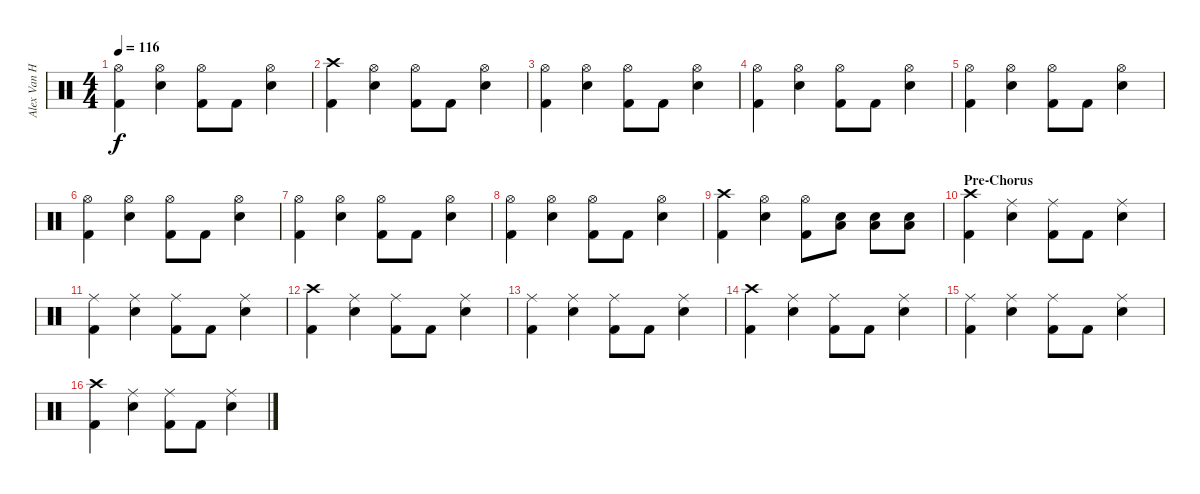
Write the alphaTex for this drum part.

\track ("Alex Van Halen" "Alex Van H") {instrument percussion}
\staff {score}
\articulation defaults
\ts (4 4)
\tempo 116
\clef neutral
\ks c
("Hi-Hat (open)" "Kick (hit) 2").4{dy f} ("Hi-Hat (open)" "Electric Snare (hit)").4 ("Hi-Hat (open)" "Kick (hit) 2").8 "Kick (hit) 2".8 ("Hi-Hat (open)" "Electric Snare (hit)").4 |
("Crash high (hit)" "Kick (hit) 2").4 ("Hi-Hat (open)" "Electric Snare (hit)").4 ("Hi-Hat (open)" "Kick (hit) 2").8 "Kick (hit) 2".8 ("Hi-Hat (open)" "Electric Snare (hit)").4 |
("Hi-Hat (open)" "Kick (hit) 2").4 ("Hi-Hat (open)" "Electric Snare (hit)").4 ("Hi-Hat (open)" "Kick (hit) 2").8 "Kick (hit) 2".8 ("Hi-Hat (open)" "Electric Snare (hit)").4 |
("Hi-Hat (open)" "Kick (hit) 2").4 ("Hi-Hat (open)" "Electric Snare (hit)").4 ("Hi-Hat (open)" "Kick (hit) 2").8 "Kick (hit) 2".8 ("Hi-Hat (open)" "Electric Snare (hit)").4 |
("Hi-Hat (open)" "Kick (hit) 2").4 ("Hi-Hat (open)" "Electric Snare (hit)").4 ("Hi-Hat (open)" "Kick (hit) 2").8 "Kick (hit) 2".8 ("Hi-Hat (open)" "Electric Snare (hit)").4 |
("Hi-Hat (open)" "Kick (hit) 2").4 ("Hi-Hat (open)" "Electric Snare (hit)").4 ("Hi-Hat (open)" "Kick (hit) 2").8 "Kick (hit) 2".8 ("Hi-Hat (open)" "Electric Snare (hit)").4 |
("Hi-Hat (open)" "Kick (hit) 2").4 ("Hi-Hat (open)" "Electric Snare (hit)").4 ("Hi-Hat (open)" "Kick (hit) 2").8 "Kick (hit) 2".8 ("Hi-Hat (open)" "Electric Snare (hit)").4 |
("Hi-Hat (open)" "Kick (hit) 2").4 ("Hi-Hat (open)" "Electric Snare (hit)").4 ("Hi-Hat (open)" "Kick (hit) 2").8 "Kick (hit) 2".8 ("Hi-Hat (open)" "Electric Snare (hit)").4 |
("Crash high (hit)" "Kick (hit) 2").4 ("Hi-Hat (open)" "Electric Snare (hit)").4 ("Hi-Hat (open)" "Kick (hit) 2").8 ("Low Tom (hit)" "Electric Snare (hit)").8 ("Low Tom (hit)" "Electric Snare (hit)").8 ("Low Tom (hit)" "Electric Snare (hit)").8 |
\section ("" "Pre-Chorus")
("Crash high (hit)" "Kick (hit) 2").4 ("Ride (middle)" "Electric Snare (hit)").4 ("Ride (middle)" "Kick (hit) 2").8 "Kick (hit) 2".8 ("Ride (middle)" "Electric Snare (hit)").4 |
("Ride (middle)" "Kick (hit) 2").4 ("Ride (middle)" "Electric Snare (hit)").4 ("Ride (middle)" "Kick (hit) 2").8 "Kick (hit) 2".8 ("Ride (middle)" "Electric Snare (hit)").4 |
("Crash high (hit)" "Kick (hit) 2").4 ("Ride (middle)" "Electric Snare (hit)").4 ("Ride (middle)" "Kick (hit) 2").8 "Kick (hit) 2".8 ("Ride (middle)" "Electric Snare (hit)").4 |
("Ride (middle)" "Kick (hit) 2").4 ("Ride (middle)" "Electric Snare (hit)").4 ("Ride (middle)" "Kick (hit) 2").8 "Kick (hit) 2".8 ("Ride (middle)" "Electric Snare (hit)").4 |
("Crash high (hit)" "Kick (hit) 2").4 ("Ride (middle)" "Electric Snare (hit)").4 ("Ride (middle)" "Kick (hit) 2").8 "Kick (hit) 2".8 ("Ride (middle)" "Electric Snare (hit)").4 |
("Ride (middle)" "Kick (hit) 2").4 ("Ride (middle)" "Electric Snare (hit)").4 ("Ride (middle)" "Kick (hit) 2").8 "Kick (hit) 2".8 ("Ride (middle)" "Electric Snare (hit)").4 |
("Crash high (hit)" "Kick (hit) 2").4 ("Ride (middle)" "Electric Snare (hit)").4 ("Ride (middle)" "Kick (hit) 2").8 "Kick (hit) 2".8 ("Ride (middle)" "Electric Snare (hit)").4
